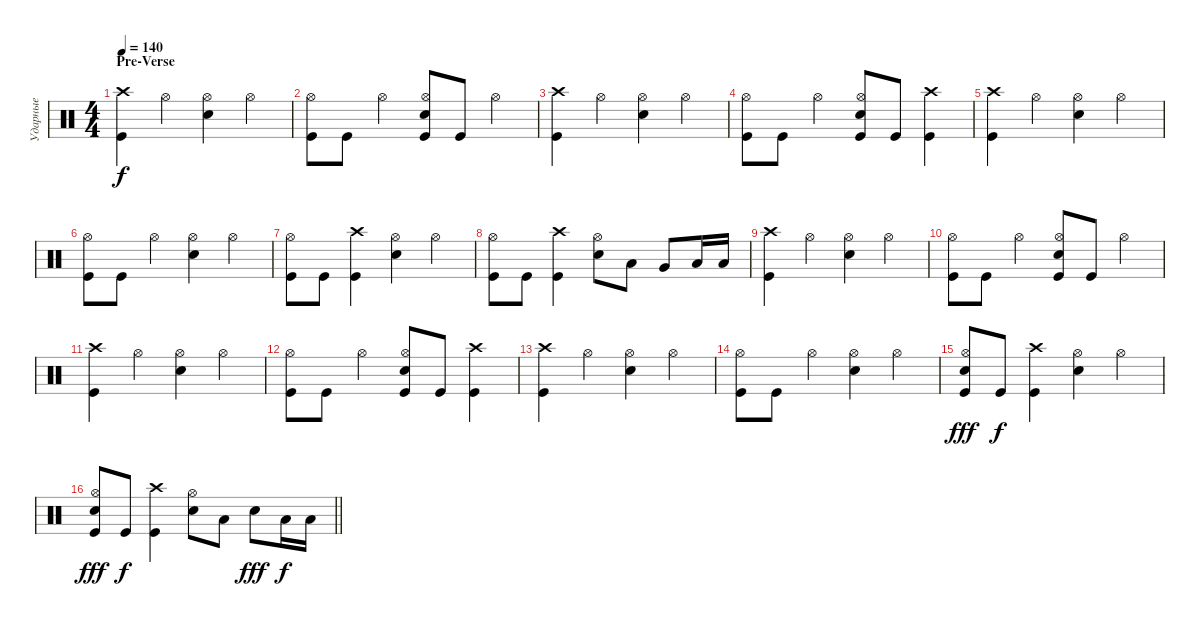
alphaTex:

\track ("Ударные" "Ударные") {instrument percussion}
\staff {score}
\articulation defaults
\ts (4 4)
\section ("" "Pre-Verse")
\tempo 140
\clef neutral
\ks c
("Crash high (hit)" "Kick (hit)").4{dy f} "Hi-Hat (open)".4 ("Hi-Hat (open)" "Snare (hit) 2").4 "Hi-Hat (open)".4 |
("Hi-Hat (open)" "Kick (hit)").8 "Kick (hit)".8 "Hi-Hat (open)".4 ("Snare (hit) 2" "Kick (hit)" "Hi-Hat (open)").8 "Kick (hit)".8 "Hi-Hat (open)".4 |
("Crash high (hit)" "Kick (hit)").4 "Hi-Hat (open)".4 ("Hi-Hat (open)" "Snare (hit) 2").4 "Hi-Hat (open)".4 |
("Hi-Hat (open)" "Kick (hit)").8 "Kick (hit)".8 "Hi-Hat (open)".4 ("Snare (hit) 2" "Kick (hit)" "Hi-Hat (open)").8 "Kick (hit)".8 ("Crash high (hit)" "Kick (hit)").4 |
("Crash high (hit)" "Kick (hit)").4 "Hi-Hat (open)".4 ("Hi-Hat (open)" "Snare (hit) 2").4 "Hi-Hat (open)".4 |
("Hi-Hat (open)" "Kick (hit)").8 "Kick (hit)".8 "Hi-Hat (open)".4 ("Snare (hit) 2" "Hi-Hat (open)").4 "Hi-Hat (open)".4 |
("Kick (hit)" "Hi-Hat (open)").8 "Kick (hit)".8 ("Kick (hit)" "Crash high (hit)").4 ("Snare (hit) 2" "Hi-Hat (open)").4 "Hi-Hat (open)".4 |
("Kick (hit)" "Hi-Hat (open)").8 "Kick (hit)".8 ("Kick (hit)" "Crash high (hit)").4 ("Snare (hit) 2" "Hi-Hat (open)").8 "Low Tom (hit)".8 "Very Low Tom (hit)".8 "Low Floor Tom (hit)".16 "Low Floor Tom (hit)".16 |
("Crash high (hit)" "Kick (hit)").4 "Hi-Hat (open)".4 ("Hi-Hat (open)" "Snare (hit) 2").4 "Hi-Hat (open)".4 |
("Hi-Hat (open)" "Kick (hit)").8 "Kick (hit)".8 "Hi-Hat (open)".4 ("Snare (hit) 2" "Kick (hit)" "Hi-Hat (open)").8 "Kick (hit)".8 "Hi-Hat (open)".4 |
("Crash high (hit)" "Kick (hit)").4 "Hi-Hat (open)".4 ("Hi-Hat (open)" "Snare (hit) 2").4 "Hi-Hat (open)".4 |
("Hi-Hat (open)" "Kick (hit)").8 "Kick (hit)".8 "Hi-Hat (open)".4 ("Snare (hit) 2" "Kick (hit)" "Hi-Hat (open)").8 "Kick (hit)".8 ("Crash high (hit)" "Kick (hit)").4 |
("Crash high (hit)" "Kick (hit)").4 "Hi-Hat (open)".4 ("Hi-Hat (open)" "Snare (hit) 2").4 "Hi-Hat (open)".4 |
("Hi-Hat (open)" "Kick (hit)").8 "Kick (hit)".8 "Hi-Hat (open)".4 ("Snare (hit) 2" "Hi-Hat (open)").4 "Hi-Hat (open)".4 |
("Kick (hit)" "Hi-Hat (open)" "Snare (hit) 2").8{dy fff} "Kick (hit)".8{dy f} ("Kick (hit)" "Crash high (hit)").4 ("Snare (hit) 2" "Hi-Hat (open)").4 "Hi-Hat (open)".4 |
\barLineRight lightlight
("Kick (hit)" "Hi-Hat (open)" "Snare (hit) 2").8{dy fff} "Kick (hit)".8{dy f} ("Kick (hit)" "Crash high (hit)").4 ("Snare (hit) 2" "Hi-Hat (open)").8 "Low Tom (hit)".8 "Snare (hit) 2".8{dy fff} "Low Floor Tom (hit)".16{dy f} "Low Floor Tom (hit)".16
